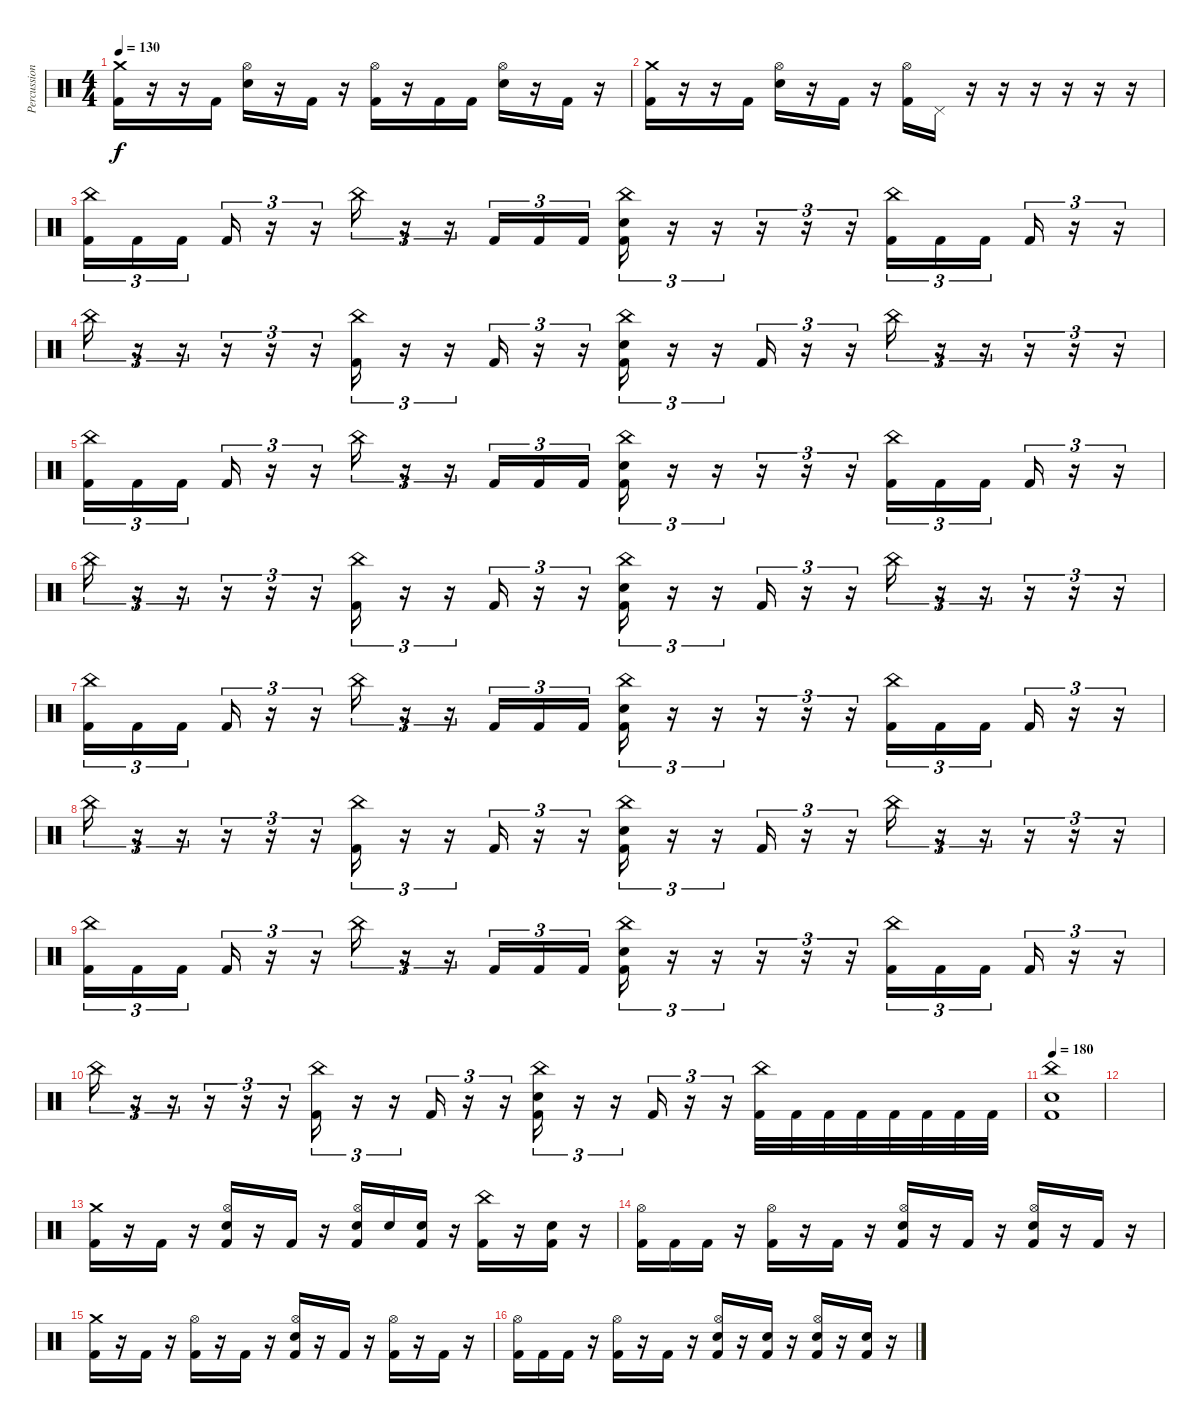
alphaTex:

\track ("Percussion" "Percussion") {instrument percussion}
\staff {score}
\articulation defaults
\ts (4 4)
\tempo 130
\clef neutral
\ks c
("Crash medium (hit)" "Kick (hit) 2").16{dy f} r.16 r.16 "Kick (hit) 2".16 ("Hi-Hat (open)" "Electric Snare (hit)").16 r.16 "Kick (hit) 2".16 r.16 ("Hi-Hat (open)" "Kick (hit) 2").16 r.16 "Kick (hit) 2".16 "Kick (hit) 2".16 ("Hi-Hat (open)" "Electric Snare (hit)").16 r.16 "Kick (hit) 2".16 r.16 |
("Crash medium (hit)" "Kick (hit) 2").16 r.16 r.16 "Kick (hit) 2".16 ("Hi-Hat (open)" "Electric Snare (hit)").16 r.16 "Kick (hit) 2".16 r.16 ("Hi-Hat (open)" "Kick (hit) 2").16 "Pedal Hi-Hat (hit)".16 r.16 r.16 r.16 r.16 r.16 r.16 |
("China (hit)" "Kick (hit) 2").16{tu (3 2)} "Kick (hit) 2".16{tu (3 2)} "Kick (hit) 2".16{tu (3 2) beam splitsecondary} "Kick (hit) 2".16{tu (3 2)} r.16{tu (3 2)} r.16{tu (3 2)} "China (hit)".16{tu (3 2)} r.16{tu (3 2)} r.16{tu (3 2)} "Kick (hit) 2".16{tu (3 2)} "Kick (hit) 2".16{tu (3 2)} "Kick (hit) 2".16{tu (3 2)} ("China (hit)" "Electric Snare (hit)" "Kick (hit) 2").16{tu (3 2)} r.16{tu (3 2)} r.16{tu (3 2)} r.16{tu (3 2)} r.16{tu (3 2)} r.16{tu (3 2)} ("China (hit)" "Kick (hit) 2").16{tu (3 2)} "Kick (hit) 2".16{tu (3 2)} "Kick (hit) 2".16{tu (3 2) beam splitsecondary} "Kick (hit) 2".16{tu (3 2)} r.16{tu (3 2)} r.16{tu (3 2)} |
"China (hit)".16{tu (3 2)} r.16{tu (3 2)} r.16{tu (3 2)} r.16{tu (3 2)} r.16{tu (3 2)} r.16{tu (3 2)} ("China (hit)" "Kick (hit) 2").16{tu (3 2)} r.16{tu (3 2)} r.16{tu (3 2)} "Kick (hit) 2".16{tu (3 2)} r.16{tu (3 2)} r.16{tu (3 2)} ("China (hit)" "Electric Snare (hit)" "Kick (hit) 2").16{tu (3 2)} r.16{tu (3 2)} r.16{tu (3 2)} "Kick (hit) 2".16{tu (3 2)} r.16{tu (3 2)} r.16{tu (3 2)} "China (hit)".16{tu (3 2)} r.16{tu (3 2)} r.16{tu (3 2)} r.16{tu (3 2)} r.16{tu (3 2)} r.16{tu (3 2)} |
("China (hit)" "Kick (hit) 2").16{tu (3 2)} "Kick (hit) 2".16{tu (3 2)} "Kick (hit) 2".16{tu (3 2) beam splitsecondary} "Kick (hit) 2".16{tu (3 2)} r.16{tu (3 2)} r.16{tu (3 2)} "China (hit)".16{tu (3 2)} r.16{tu (3 2)} r.16{tu (3 2)} "Kick (hit) 2".16{tu (3 2)} "Kick (hit) 2".16{tu (3 2)} "Kick (hit) 2".16{tu (3 2)} ("China (hit)" "Electric Snare (hit)" "Kick (hit) 2").16{tu (3 2)} r.16{tu (3 2)} r.16{tu (3 2)} r.16{tu (3 2)} r.16{tu (3 2)} r.16{tu (3 2)} ("China (hit)" "Kick (hit) 2").16{tu (3 2)} "Kick (hit) 2".16{tu (3 2)} "Kick (hit) 2".16{tu (3 2) beam splitsecondary} "Kick (hit) 2".16{tu (3 2)} r.16{tu (3 2)} r.16{tu (3 2)} |
"China (hit)".16{tu (3 2)} r.16{tu (3 2)} r.16{tu (3 2)} r.16{tu (3 2)} r.16{tu (3 2)} r.16{tu (3 2)} ("China (hit)" "Kick (hit) 2").16{tu (3 2)} r.16{tu (3 2)} r.16{tu (3 2)} "Kick (hit) 2".16{tu (3 2)} r.16{tu (3 2)} r.16{tu (3 2)} ("China (hit)" "Electric Snare (hit)" "Kick (hit) 2").16{tu (3 2)} r.16{tu (3 2)} r.16{tu (3 2)} "Kick (hit) 2".16{tu (3 2)} r.16{tu (3 2)} r.16{tu (3 2)} "China (hit)".16{tu (3 2)} r.16{tu (3 2)} r.16{tu (3 2)} r.16{tu (3 2)} r.16{tu (3 2)} r.16{tu (3 2)} |
("China (hit)" "Kick (hit) 2").16{tu (3 2)} "Kick (hit) 2".16{tu (3 2)} "Kick (hit) 2".16{tu (3 2) beam splitsecondary} "Kick (hit) 2".16{tu (3 2)} r.16{tu (3 2)} r.16{tu (3 2)} "China (hit)".16{tu (3 2)} r.16{tu (3 2)} r.16{tu (3 2)} "Kick (hit) 2".16{tu (3 2)} "Kick (hit) 2".16{tu (3 2)} "Kick (hit) 2".16{tu (3 2)} ("China (hit)" "Electric Snare (hit)" "Kick (hit) 2").16{tu (3 2)} r.16{tu (3 2)} r.16{tu (3 2)} r.16{tu (3 2)} r.16{tu (3 2)} r.16{tu (3 2)} ("China (hit)" "Kick (hit) 2").16{tu (3 2)} "Kick (hit) 2".16{tu (3 2)} "Kick (hit) 2".16{tu (3 2) beam splitsecondary} "Kick (hit) 2".16{tu (3 2)} r.16{tu (3 2)} r.16{tu (3 2)} |
"China (hit)".16{tu (3 2)} r.16{tu (3 2)} r.16{tu (3 2)} r.16{tu (3 2)} r.16{tu (3 2)} r.16{tu (3 2)} ("China (hit)" "Kick (hit) 2").16{tu (3 2)} r.16{tu (3 2)} r.16{tu (3 2)} "Kick (hit) 2".16{tu (3 2)} r.16{tu (3 2)} r.16{tu (3 2)} ("China (hit)" "Electric Snare (hit)" "Kick (hit) 2").16{tu (3 2)} r.16{tu (3 2)} r.16{tu (3 2)} "Kick (hit) 2".16{tu (3 2)} r.16{tu (3 2)} r.16{tu (3 2)} "China (hit)".16{tu (3 2)} r.16{tu (3 2)} r.16{tu (3 2)} r.16{tu (3 2)} r.16{tu (3 2)} r.16{tu (3 2)} |
("China (hit)" "Kick (hit) 2").16{tu (3 2)} "Kick (hit) 2".16{tu (3 2)} "Kick (hit) 2".16{tu (3 2) beam splitsecondary} "Kick (hit) 2".16{tu (3 2)} r.16{tu (3 2)} r.16{tu (3 2)} "China (hit)".16{tu (3 2)} r.16{tu (3 2)} r.16{tu (3 2)} "Kick (hit) 2".16{tu (3 2)} "Kick (hit) 2".16{tu (3 2)} "Kick (hit) 2".16{tu (3 2)} ("China (hit)" "Electric Snare (hit)" "Kick (hit) 2").16{tu (3 2)} r.16{tu (3 2)} r.16{tu (3 2)} r.16{tu (3 2)} r.16{tu (3 2)} r.16{tu (3 2)} ("China (hit)" "Kick (hit) 2").16{tu (3 2)} "Kick (hit) 2".16{tu (3 2)} "Kick (hit) 2".16{tu (3 2) beam splitsecondary} "Kick (hit) 2".16{tu (3 2)} r.16{tu (3 2)} r.16{tu (3 2)} |
"China (hit)".16{tu (3 2)} r.16{tu (3 2)} r.16{tu (3 2)} r.16{tu (3 2)} r.16{tu (3 2)} r.16{tu (3 2)} ("China (hit)" "Kick (hit) 2").16{tu (3 2)} r.16{tu (3 2)} r.16{tu (3 2)} "Kick (hit) 2".16{tu (3 2)} r.16{tu (3 2)} r.16{tu (3 2)} ("China (hit)" "Electric Snare (hit)" "Kick (hit) 2").16{tu (3 2)} r.16{tu (3 2)} r.16{tu (3 2)} "Kick (hit) 2".16{tu (3 2)} r.16{tu (3 2)} r.16{tu (3 2)} ("China (hit)" "Kick (hit) 2").32 "Kick (hit) 2".32 "Kick (hit) 2".32 "Kick (hit) 2".32 "Kick (hit) 2".32 "Kick (hit) 2".32 "Kick (hit) 2".32 "Kick (hit) 2".32 |
\tempo 180
("China (hit)" "Electric Snare (hit)" "Kick (hit) 2").1 |
|
("Crash medium (hit)" "Kick (hit) 2").16 r.16 "Kick (hit) 2".16 r.16 ("Hi-Hat (open)" "Electric Snare (hit)" "Kick (hit) 2").16 r.16 "Kick (hit) 2".16 r.16 ("Hi-Hat (open)" "Electric Snare (hit)" "Kick (hit) 2").16 "Electric Snare (hit)".16 ("Electric Snare (hit)" "Kick (hit) 2").16 r.16 ("China (hit)" "Kick (hit) 2").16 r.16 ("Electric Snare (hit)" "Kick (hit) 2").16 r.16 |
("Hi-Hat (open)" "Kick (hit) 2").16 "Kick (hit) 2".16 "Kick (hit) 2".16 r.16 ("Hi-Hat (open)" "Kick (hit) 2").16 r.16 "Kick (hit) 2".16 r.16 ("Hi-Hat (open)" "Electric Snare (hit)" "Kick (hit) 2").16 r.16 "Kick (hit) 2".16 r.16 ("Hi-Hat (open)" "Electric Snare (hit)" "Kick (hit) 2").16 r.16 "Kick (hit) 2".16 r.16 |
("Crash medium (hit)" "Kick (hit) 2").16 r.16 "Kick (hit) 2".16 r.16 ("Hi-Hat (open)" "Kick (hit) 2").16 r.16 "Kick (hit) 2".16 r.16 ("Hi-Hat (open)" "Electric Snare (hit)" "Kick (hit) 2").16 r.16 "Kick (hit) 2".16 r.16 ("Hi-Hat (open)" "Kick (hit) 2").16 r.16 "Kick (hit) 2".16 r.16 |
("Hi-Hat (open)" "Kick (hit) 2").16 "Kick (hit) 2".16 "Kick (hit) 2".16 r.16 ("Hi-Hat (open)" "Kick (hit) 2").16 r.16 "Kick (hit) 2".16 r.16 ("Hi-Hat (open)" "Electric Snare (hit)" "Kick (hit) 2").16 r.16 ("Electric Snare (hit)" "Kick (hit) 2").16 r.16 ("Hi-Hat (open)" "Electric Snare (hit)" "Kick (hit) 2").16 r.16 ("Electric Snare (hit)" "Kick (hit) 2").16 r.16
